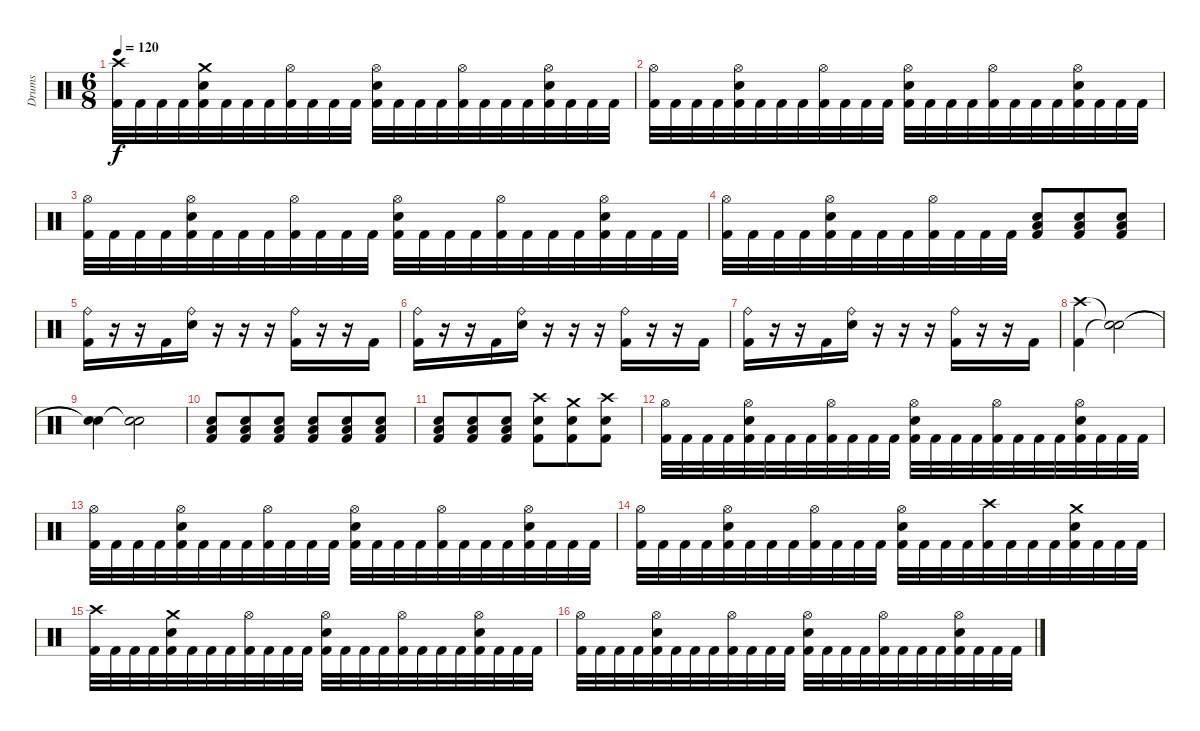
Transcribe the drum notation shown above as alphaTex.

\track ("Drums" "Drums") {instrument percussion}
\staff {score}
\articulation defaults
\ts (6 8)
\tempo 120
\clef neutral
\ks c
("Crash high (hit)" "Kick (hit) 2").32{dy f} "Kick (hit) 2".32 "Kick (hit) 2".32 "Kick (hit) 2".32 ("Crash medium (hit)" "Electric Snare (hit)" "Kick (hit) 2").32 "Kick (hit) 2".32 "Kick (hit) 2".32 "Kick (hit) 2".32 ("Hi-Hat (open)" "Kick (hit) 2").32 "Kick (hit) 2".32 "Kick (hit) 2".32 "Kick (hit) 2".32 ("Hi-Hat (open)" "Electric Snare (hit)" "Kick (hit) 2").32 "Kick (hit) 2".32 "Kick (hit) 2".32 "Kick (hit) 2".32 ("Hi-Hat (open)" "Kick (hit) 2").32 "Kick (hit) 2".32 "Kick (hit) 2".32 "Kick (hit) 2".32 ("Hi-Hat (open)" "Electric Snare (hit)" "Kick (hit) 2").32 "Kick (hit) 2".32 "Kick (hit) 2".32 "Kick (hit) 2".32 |
("Hi-Hat (open)" "Kick (hit) 2").32 "Kick (hit) 2".32 "Kick (hit) 2".32 "Kick (hit) 2".32 ("Hi-Hat (open)" "Electric Snare (hit)" "Kick (hit) 2").32 "Kick (hit) 2".32 "Kick (hit) 2".32 "Kick (hit) 2".32 ("Hi-Hat (open)" "Kick (hit) 2").32 "Kick (hit) 2".32 "Kick (hit) 2".32 "Kick (hit) 2".32 ("Hi-Hat (open)" "Electric Snare (hit)" "Kick (hit) 2").32 "Kick (hit) 2".32 "Kick (hit) 2".32 "Kick (hit) 2".32 ("Hi-Hat (open)" "Kick (hit) 2").32 "Kick (hit) 2".32 "Kick (hit) 2".32 "Kick (hit) 2".32 ("Hi-Hat (open)" "Electric Snare (hit)" "Kick (hit) 2").32 "Kick (hit) 2".32 "Kick (hit) 2".32 "Kick (hit) 2".32 |
("Hi-Hat (open)" "Kick (hit) 2").32 "Kick (hit) 2".32 "Kick (hit) 2".32 "Kick (hit) 2".32 ("Hi-Hat (open)" "Electric Snare (hit)" "Kick (hit) 2").32 "Kick (hit) 2".32 "Kick (hit) 2".32 "Kick (hit) 2".32 ("Hi-Hat (open)" "Kick (hit) 2").32 "Kick (hit) 2".32 "Kick (hit) 2".32 "Kick (hit) 2".32 ("Hi-Hat (open)" "Electric Snare (hit)" "Kick (hit) 2").32 "Kick (hit) 2".32 "Kick (hit) 2".32 "Kick (hit) 2".32 ("Hi-Hat (open)" "Kick (hit) 2").32 "Kick (hit) 2".32 "Kick (hit) 2".32 "Kick (hit) 2".32 ("Hi-Hat (open)" "Electric Snare (hit)" "Kick (hit) 2").32 "Kick (hit) 2".32 "Kick (hit) 2".32 "Kick (hit) 2".32 |
("Hi-Hat (open)" "Kick (hit) 2").32 "Kick (hit) 2".32 "Kick (hit) 2".32 "Kick (hit) 2".32 ("Hi-Hat (open)" "Electric Snare (hit)" "Kick (hit) 2").32 "Kick (hit) 2".32 "Kick (hit) 2".32 "Kick (hit) 2".32 ("Hi-Hat (open)" "Kick (hit) 2").32 "Kick (hit) 2".32 "Kick (hit) 2".32 "Kick (hit) 2".32 ("Electric Snare (hit)" "Low Floor Tom (hit)" "Kick (hit) 2").8 ("Electric Snare (hit)" "Low Floor Tom (hit)" "Kick (hit) 2").8 ("Electric Snare (hit)" "Low Floor Tom (hit)" "Kick (hit) 2").8 |
("Kick (hit) 2" "Ride (bell)").16 r.16 r.16 "Kick (hit) 2".16 ("Electric Snare (hit)" "Ride (bell)").16 r.16 r.16 r.16 ("Kick (hit) 2" "Ride (bell)").16 r.16 r.16 "Kick (hit) 2".16 |
("Kick (hit) 2" "Ride (bell)").16 r.16 r.16 "Kick (hit) 2".16 ("Electric Snare (hit)" "Ride (bell)").16 r.16 r.16 r.16 ("Kick (hit) 2" "Ride (bell)").16 r.16 r.16 "Kick (hit) 2".16 |
("Kick (hit) 2" "Ride (bell)").16 r.16 r.16 "Kick (hit) 2".16 ("Electric Snare (hit)" "Ride (bell)").16 r.16 r.16 r.16 ("Kick (hit) 2" "Ride (bell)").16 r.16 r.16 "Kick (hit) 2".16 |
("Crash high (hit)" "Kick (hit) 2").4 ("Snare (hit)"{t} "Snare (hit)"{t}).2 |
("Snare (hit)"{t} "Snare (hit)"{t}).4 ("Snare (hit)"{t} "Snare (hit)"{t}).2 |
("Low Floor Tom (hit)" "Electric Snare (hit)" "Kick (hit) 2").8{volume 2} ("Low Floor Tom (hit)" "Electric Snare (hit)" "Kick (hit) 2").8{volume 4} ("Low Floor Tom (hit)" "Electric Snare (hit)" "Kick (hit) 2").8{volume 6} ("Low Floor Tom (hit)" "Electric Snare (hit)" "Kick (hit) 2").8{volume 8} ("Low Floor Tom (hit)" "Electric Snare (hit)" "Kick (hit) 2").8{volume 10} ("Low Floor Tom (hit)" "Electric Snare (hit)" "Kick (hit) 2").8{volume 12} |
("Low Floor Tom (hit)" "Electric Snare (hit)" "Kick (hit) 2").8{volume 14} ("Low Floor Tom (hit)" "Electric Snare (hit)" "Kick (hit) 2").8{volume 16} ("Low Floor Tom (hit)" "Electric Snare (hit)" "Kick (hit) 2").8 ("Crash high (hit)" "Electric Snare (hit)" "Kick (hit) 2").8 ("Crash medium (hit)" "Electric Snare (hit)" "Kick (hit) 2").8 ("Crash high (hit)" "Electric Snare (hit)" "Kick (hit) 2").8 |
("Hi-Hat (open)" "Kick (hit) 2").32 "Kick (hit) 2".32 "Kick (hit) 2".32 "Kick (hit) 2".32 ("Hi-Hat (open)" "Electric Snare (hit)" "Kick (hit) 2").32 "Kick (hit) 2".32 "Kick (hit) 2".32 "Kick (hit) 2".32 ("Hi-Hat (open)" "Kick (hit) 2").32 "Kick (hit) 2".32 "Kick (hit) 2".32 "Kick (hit) 2".32 ("Hi-Hat (open)" "Electric Snare (hit)" "Kick (hit) 2").32 "Kick (hit) 2".32 "Kick (hit) 2".32 "Kick (hit) 2".32 ("Hi-Hat (open)" "Kick (hit) 2").32 "Kick (hit) 2".32 "Kick (hit) 2".32 "Kick (hit) 2".32 ("Hi-Hat (open)" "Electric Snare (hit)" "Kick (hit) 2").32 "Kick (hit) 2".32 "Kick (hit) 2".32 "Kick (hit) 2".32 |
("Hi-Hat (open)" "Kick (hit) 2").32 "Kick (hit) 2".32 "Kick (hit) 2".32 "Kick (hit) 2".32 ("Hi-Hat (open)" "Electric Snare (hit)" "Kick (hit) 2").32 "Kick (hit) 2".32 "Kick (hit) 2".32 "Kick (hit) 2".32 ("Hi-Hat (open)" "Kick (hit) 2").32 "Kick (hit) 2".32 "Kick (hit) 2".32 "Kick (hit) 2".32 ("Hi-Hat (open)" "Electric Snare (hit)" "Kick (hit) 2").32 "Kick (hit) 2".32 "Kick (hit) 2".32 "Kick (hit) 2".32 ("Hi-Hat (open)" "Kick (hit) 2").32 "Kick (hit) 2".32 "Kick (hit) 2".32 "Kick (hit) 2".32 ("Hi-Hat (open)" "Electric Snare (hit)" "Kick (hit) 2").32 "Kick (hit) 2".32 "Kick (hit) 2".32 "Kick (hit) 2".32 |
("Hi-Hat (open)" "Kick (hit) 2").32 "Kick (hit) 2".32 "Kick (hit) 2".32 "Kick (hit) 2".32 ("Hi-Hat (open)" "Electric Snare (hit)" "Kick (hit) 2").32 "Kick (hit) 2".32 "Kick (hit) 2".32 "Kick (hit) 2".32 ("Hi-Hat (open)" "Kick (hit) 2").32 "Kick (hit) 2".32 "Kick (hit) 2".32 "Kick (hit) 2".32 ("Hi-Hat (open)" "Electric Snare (hit)" "Kick (hit) 2").32 "Kick (hit) 2".32 "Kick (hit) 2".32 "Kick (hit) 2".32 ("Crash high (hit)" "Kick (hit) 2").32 "Kick (hit) 2".32 "Kick (hit) 2".32 "Kick (hit) 2".32 ("Crash medium (hit)" "Electric Snare (hit)" "Kick (hit) 2").32 "Kick (hit) 2".32 "Kick (hit) 2".32 "Kick (hit) 2".32 |
("Crash high (hit)" "Kick (hit) 2").32 "Kick (hit) 2".32 "Kick (hit) 2".32 "Kick (hit) 2".32 ("Crash medium (hit)" "Electric Snare (hit)" "Kick (hit) 2").32 "Kick (hit) 2".32 "Kick (hit) 2".32 "Kick (hit) 2".32 ("Hi-Hat (open)" "Kick (hit) 2").32 "Kick (hit) 2".32 "Kick (hit) 2".32 "Kick (hit) 2".32 ("Hi-Hat (open)" "Electric Snare (hit)" "Kick (hit) 2").32 "Kick (hit) 2".32 "Kick (hit) 2".32 "Kick (hit) 2".32 ("Hi-Hat (open)" "Kick (hit) 2").32 "Kick (hit) 2".32 "Kick (hit) 2".32 "Kick (hit) 2".32 ("Hi-Hat (open)" "Electric Snare (hit)" "Kick (hit) 2").32 "Kick (hit) 2".32 "Kick (hit) 2".32 "Kick (hit) 2".32 |
("Hi-Hat (open)" "Kick (hit) 2").32 "Kick (hit) 2".32 "Kick (hit) 2".32 "Kick (hit) 2".32 ("Hi-Hat (open)" "Electric Snare (hit)" "Kick (hit) 2").32 "Kick (hit) 2".32 "Kick (hit) 2".32 "Kick (hit) 2".32 ("Hi-Hat (open)" "Kick (hit) 2").32 "Kick (hit) 2".32 "Kick (hit) 2".32 "Kick (hit) 2".32 ("Hi-Hat (open)" "Electric Snare (hit)" "Kick (hit) 2").32 "Kick (hit) 2".32 "Kick (hit) 2".32 "Kick (hit) 2".32 ("Hi-Hat (open)" "Kick (hit) 2").32 "Kick (hit) 2".32 "Kick (hit) 2".32 "Kick (hit) 2".32 ("Hi-Hat (open)" "Electric Snare (hit)" "Kick (hit) 2").32 "Kick (hit) 2".32 "Kick (hit) 2".32 "Kick (hit) 2".32
